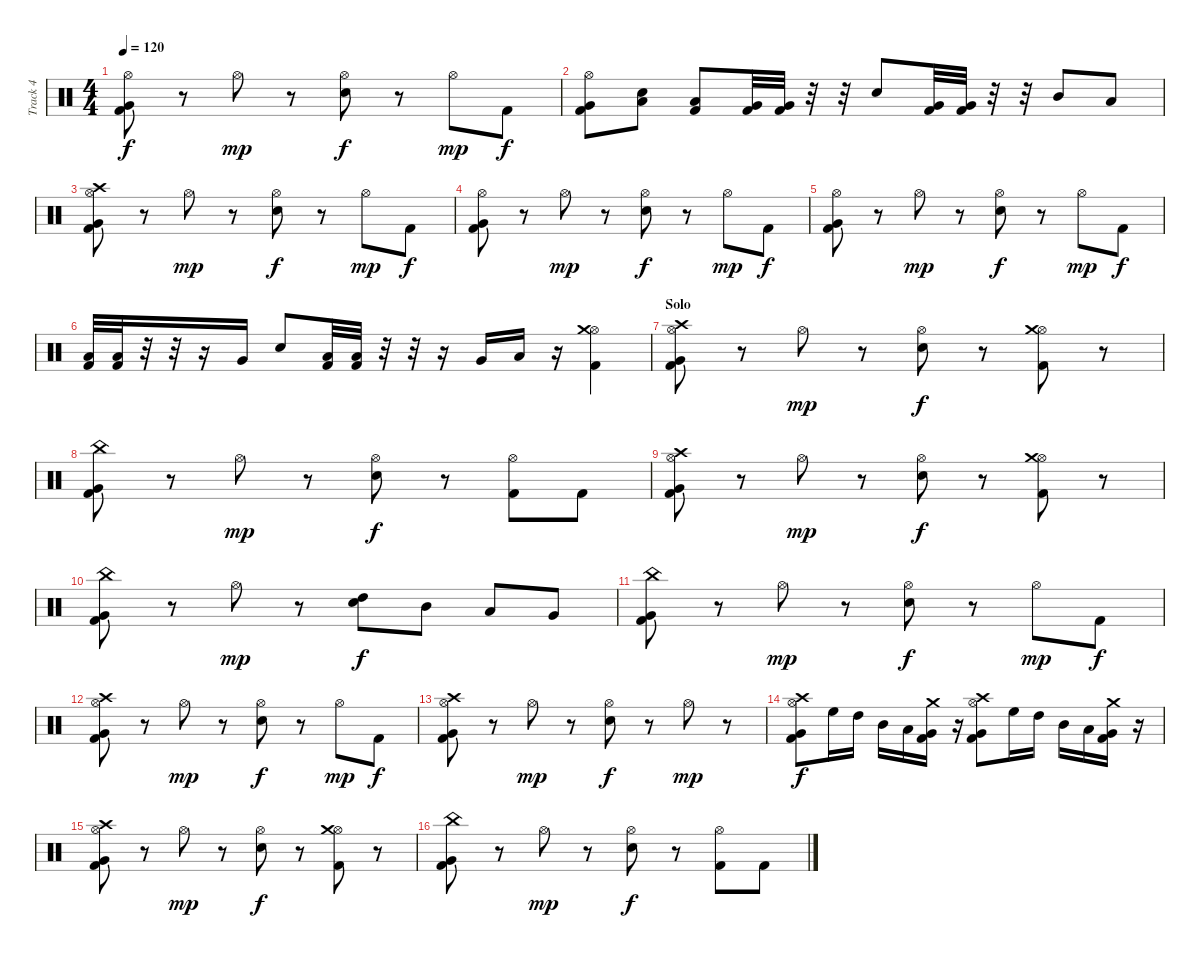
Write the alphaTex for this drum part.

\track ("Track 4" "Track 4") {instrument percussion}
\staff {score}
\articulation defaults
\ts (4 4)
\tempo 120
\clef neutral
\ks c
("Hi-Hat (open)" "Kick (hit) 2" "Very Low Tom (hit)").8{dy f} r.8 "Hi-Hat (open)".8{dy mp} r.8 ("Hi-Hat (open)" "Snare (hit) 2").8{dy f} r.8 "Hi-Hat (open)".8{dy mp} "Kick (hit) 2".8{dy f} |
("Hi-Hat (open)" "Kick (hit) 2" "Very Low Tom (hit)").8 ("Low Tom (hit)" "Electric Snare (hit)").8 ("Kick (hit) 2" "Low Floor Tom (hit)").8 ("Kick (hit) 2" "Very Low Tom (hit)").32 ("Kick (hit) 2" "Very Low Tom (hit)").32 r.32 r.32 "Electric Snare (hit)".8 ("Kick (hit) 2" "Very Low Tom (hit)").32 ("Kick (hit) 2" "Very Low Tom (hit)").32 r.32 r.32 "Mid Tom (hit)".8 "Low Tom (hit)".8 |
("Hi-Hat (open)" "Kick (hit) 2" "Very Low Tom (hit)" "Crash high (hit)").8 r.8 "Hi-Hat (open)".8{dy mp} r.8 ("Hi-Hat (open)" "Snare (hit) 2").8{dy f} r.8 "Hi-Hat (open)".8{dy mp} "Kick (hit) 2".8{dy f} |
("Hi-Hat (open)" "Kick (hit) 2" "Very Low Tom (hit)").8 r.8 "Hi-Hat (open)".8{dy mp} r.8 ("Hi-Hat (open)" "Snare (hit) 2").8{dy f} r.8 "Hi-Hat (open)".8{dy mp} "Kick (hit) 2".8{dy f} |
("Hi-Hat (open)" "Kick (hit) 2" "Very Low Tom (hit)").8 r.8 "Hi-Hat (open)".8{dy mp} r.8 ("Hi-Hat (open)" "Snare (hit) 2").8{dy f} r.8 "Hi-Hat (open)".8{dy mp} "Kick (hit) 2".8{dy f} |
("Kick (hit) 2" "Low Tom (hit)").32 ("Kick (hit) 2" "Low Tom (hit)").32 r.32 r.32 r.16 "Very Low Tom (hit)".16 "Electric Snare (hit)".8 ("Kick (hit) 2" "Low Tom (hit)").32 ("Kick (hit) 2" "Low Tom (hit)").32 r.32 r.32 r.16 "Very Low Tom (hit)".16 "Low Tom (hit)".16 r.16 ("Hi-Hat (open)" "Kick (hit) 2" "Crash medium (hit)").4 |
\section ("" "Solo")
("Hi-Hat (open)" "Kick (hit) 2" "Very Low Tom (hit)" "Crash high (hit)").8 r.8 "Hi-Hat (open)".8{dy mp} r.8 ("Hi-Hat (open)" "Snare (hit) 2").8{dy f} r.8 ("Hi-Hat (open)" "Kick (hit) 2" "Crash medium (hit)").8 r.8 |
("China (hit)" "Kick (hit) 2" "Very Low Tom (hit)").8 r.8 "Hi-Hat (open)".8{dy mp} r.8 ("Hi-Hat (open)" "Snare (hit) 2").8{dy f} r.8 ("Hi-Hat (open)" "Kick (hit) 2").8 "Kick (hit) 2".8 |
("Hi-Hat (open)" "Kick (hit) 2" "Very Low Tom (hit)" "Crash high (hit)").8 r.8 "Hi-Hat (open)".8{dy mp} r.8 ("Hi-Hat (open)" "Snare (hit) 2").8{dy f} r.8 ("Hi-Hat (open)" "Kick (hit) 2" "Crash medium (hit)").8 r.8 |
("China (hit)" "Kick (hit) 2" "Very Low Tom (hit)").8 r.8 "Hi-Hat (open)".8{dy mp} r.8 ("High Tom (hit)" "Snare (hit) 2").8{dy f} "Mid Tom (hit)".8 "Low Tom (hit)".8 "Very Low Tom (hit)".8 |
("China (hit)" "Kick (hit) 2" "Very Low Tom (hit)").8 r.8 "Hi-Hat (open)".8{dy mp} r.8 ("Hi-Hat (open)" "Snare (hit) 2").8{dy f} r.8 "Hi-Hat (open)".8{dy mp} "Kick (hit) 2".8{dy f} |
("Hi-Hat (open)" "Kick (hit) 2" "Very Low Tom (hit)" "Crash high (hit)").8 r.8 "Hi-Hat (open)".8{dy mp} r.8 ("Hi-Hat (open)" "Snare (hit) 2").8{dy f} r.8 "Hi-Hat (open)".8{dy mp} "Kick (hit) 2".8{dy f} |
("Hi-Hat (open)" "Kick (hit) 2" "Very Low Tom (hit)" "Crash high (hit)").8 r.8 "Hi-Hat (open)".8{dy mp} r.8 ("Hi-Hat (open)" "Snare (hit) 2").8{dy f} r.8 "Hi-Hat (open)".8{dy mp} r.8 |
("Hi-Hat (open)" "Kick (hit) 2" "Very Low Tom (hit)" "Crash high (hit)").8{dy f} "High Floor Tom (hit)".16 "High Tom (hit)".16 "Mid Tom (hit)".16 "Low Tom (hit)".16 ("Very Low Tom (hit)" "Kick (hit) 2" "Crash medium (hit)").16 r.16 ("Hi-Hat (open)" "Kick (hit) 2" "Very Low Tom (hit)" "Crash high (hit)").8 "High Floor Tom (hit)".16 "High Tom (hit)".16 "Mid Tom (hit)".16 "Low Tom (hit)".16 ("Very Low Tom (hit)" "Kick (hit) 2" "Crash medium (hit)").16 r.16 |
("Hi-Hat (open)" "Kick (hit) 2" "Very Low Tom (hit)" "Crash high (hit)").8 r.8 "Hi-Hat (open)".8{dy mp} r.8 ("Hi-Hat (open)" "Snare (hit) 2").8{dy f} r.8 ("Hi-Hat (open)" "Kick (hit) 2" "Crash medium (hit)").8 r.8 |
("China (hit)" "Kick (hit) 2" "Very Low Tom (hit)").8 r.8 "Hi-Hat (open)".8{dy mp} r.8 ("Hi-Hat (open)" "Snare (hit) 2").8{dy f} r.8 ("Hi-Hat (open)" "Kick (hit) 2").8 "Kick (hit) 2".8
